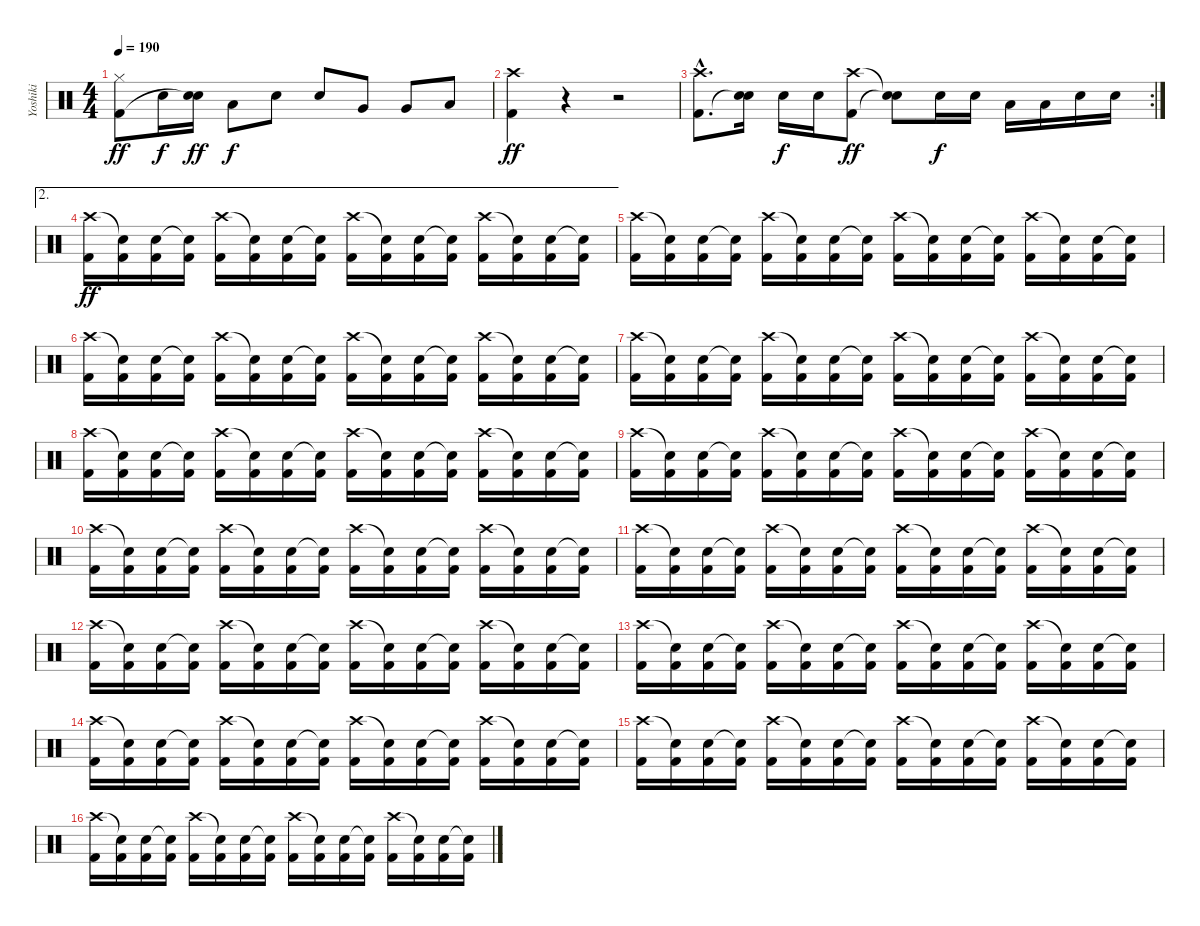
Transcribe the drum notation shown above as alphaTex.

\track ("Yoshiki" "Yoshiki") {instrument percussion}
\staff {score}
\articulation defaults
\ts (4 4)
\tempo 190
\clef neutral
\ks c
("Hi-Hat (closed)" "Kick (hit) 2").8{dy ff} "Snare (hit) 2".16{dy f} ("Snare (hit) 2" "Snare (hit)"{t}).16{dy ff} "Low Tom (hit)".8{dy f} "Snare (hit) 2".8 "Snare (hit) 2".8 "Very Low Tom (hit)".8 "Very Low Tom (hit)".8 "Low Floor Tom (hit)".8 |
("Crash high (hit)" "Kick (hit) 2").4{dy ff} r.4 r.2 |
\rc 2
("Crash high (hit)"{hac} "Kick (hit) 2"{hac}).8{d} ("Snare (hit) 2" "Snare (hit)"{t}).16 "Snare (hit) 2".16{dy f} "Snare (hit) 2".16 ("Crash high (hit)" "Kick (hit) 2").8{dy ff} ("Snare (hit)"{t} "Snare (hit)"{t}).8 "Snare (hit) 2".16{dy f} "Snare (hit) 2".16 "Low Tom (hit)".16 "Low Tom (hit)".16 "Snare (hit) 2".16 "Snare (hit) 2".16 |
\ae 2
("Crash high (hit)" "Kick (hit) 2").16{dy ff} ("Snare (hit)"{t} "Kick (hit) 2").16 ("Snare (hit) 2" "Kick (hit) 2").16 ("Snare (hit)"{t} "Kick (hit) 2").16 ("Crash high (hit)" "Kick (hit) 2").16 ("Snare (hit)"{t} "Kick (hit) 2").16 ("Snare (hit) 2" "Kick (hit) 2").16 ("Snare (hit)"{t} "Kick (hit) 2").16 ("Crash high (hit)" "Kick (hit) 2").16 ("Snare (hit)"{t} "Kick (hit) 2").16 ("Snare (hit) 2" "Kick (hit) 2").16 ("Snare (hit)"{t} "Kick (hit) 2").16 ("Crash high (hit)" "Kick (hit) 2").16 ("Snare (hit)"{t} "Kick (hit) 2").16 ("Snare (hit) 2" "Kick (hit) 2").16 ("Snare (hit)"{t} "Kick (hit) 2").16 |
("Crash high (hit)" "Kick (hit) 2").16 ("Snare (hit)"{t} "Kick (hit) 2").16 ("Snare (hit) 2" "Kick (hit) 2").16 ("Snare (hit)"{t} "Kick (hit) 2").16 ("Crash high (hit)" "Kick (hit) 2").16 ("Snare (hit)"{t} "Kick (hit) 2").16 ("Snare (hit) 2" "Kick (hit) 2").16 ("Snare (hit)"{t} "Kick (hit) 2").16 ("Crash high (hit)" "Kick (hit) 2").16 ("Snare (hit)"{t} "Kick (hit) 2").16 ("Snare (hit) 2" "Kick (hit) 2").16 ("Snare (hit)"{t} "Kick (hit) 2").16 ("Crash high (hit)" "Kick (hit) 2").16 ("Snare (hit)"{t} "Kick (hit) 2").16 ("Snare (hit) 2" "Kick (hit) 2").16 ("Snare (hit)"{t} "Kick (hit) 2").16 |
("Crash high (hit)" "Kick (hit) 2").16 ("Snare (hit)"{t} "Kick (hit) 2").16 ("Snare (hit) 2" "Kick (hit) 2").16 ("Snare (hit)"{t} "Kick (hit) 2").16 ("Crash high (hit)" "Kick (hit) 2").16 ("Snare (hit)"{t} "Kick (hit) 2").16 ("Snare (hit) 2" "Kick (hit) 2").16 ("Snare (hit)"{t} "Kick (hit) 2").16 ("Crash high (hit)" "Kick (hit) 2").16 ("Snare (hit)"{t} "Kick (hit) 2").16 ("Snare (hit) 2" "Kick (hit) 2").16 ("Snare (hit)"{t} "Kick (hit) 2").16 ("Crash high (hit)" "Kick (hit) 2").16 ("Snare (hit)"{t} "Kick (hit) 2").16 ("Snare (hit) 2" "Kick (hit) 2").16 ("Snare (hit)"{t} "Kick (hit) 2").16 |
("Crash high (hit)" "Kick (hit) 2").16 ("Snare (hit)"{t} "Kick (hit) 2").16 ("Snare (hit) 2" "Kick (hit) 2").16 ("Snare (hit)"{t} "Kick (hit) 2").16 ("Crash high (hit)" "Kick (hit) 2").16 ("Snare (hit)"{t} "Kick (hit) 2").16 ("Snare (hit) 2" "Kick (hit) 2").16 ("Snare (hit)"{t} "Kick (hit) 2").16 ("Crash high (hit)" "Kick (hit) 2").16 ("Snare (hit)"{t} "Kick (hit) 2").16 ("Snare (hit) 2" "Kick (hit) 2").16 ("Snare (hit)"{t} "Kick (hit) 2").16 ("Crash high (hit)" "Kick (hit) 2").16 ("Snare (hit)"{t} "Kick (hit) 2").16 ("Snare (hit) 2" "Kick (hit) 2").16 ("Snare (hit)"{t} "Kick (hit) 2").16 |
("Crash high (hit)" "Kick (hit) 2").16 ("Snare (hit)"{t} "Kick (hit) 2").16 ("Snare (hit) 2" "Kick (hit) 2").16 ("Snare (hit)"{t} "Kick (hit) 2").16 ("Crash high (hit)" "Kick (hit) 2").16 ("Snare (hit)"{t} "Kick (hit) 2").16 ("Snare (hit) 2" "Kick (hit) 2").16 ("Snare (hit)"{t} "Kick (hit) 2").16 ("Crash high (hit)" "Kick (hit) 2").16 ("Snare (hit)"{t} "Kick (hit) 2").16 ("Snare (hit) 2" "Kick (hit) 2").16 ("Snare (hit)"{t} "Kick (hit) 2").16 ("Crash high (hit)" "Kick (hit) 2").16 ("Snare (hit)"{t} "Kick (hit) 2").16 ("Snare (hit) 2" "Kick (hit) 2").16 ("Snare (hit)"{t} "Kick (hit) 2").16 |
("Crash high (hit)" "Kick (hit) 2").16 ("Snare (hit)"{t} "Kick (hit) 2").16 ("Snare (hit) 2" "Kick (hit) 2").16 ("Snare (hit)"{t} "Kick (hit) 2").16 ("Crash high (hit)" "Kick (hit) 2").16 ("Snare (hit)"{t} "Kick (hit) 2").16 ("Snare (hit) 2" "Kick (hit) 2").16 ("Snare (hit)"{t} "Kick (hit) 2").16 ("Crash high (hit)" "Kick (hit) 2").16 ("Snare (hit)"{t} "Kick (hit) 2").16 ("Snare (hit) 2" "Kick (hit) 2").16 ("Snare (hit)"{t} "Kick (hit) 2").16 ("Crash high (hit)" "Kick (hit) 2").16 ("Snare (hit)"{t} "Kick (hit) 2").16 ("Snare (hit) 2" "Kick (hit) 2").16 ("Snare (hit)"{t} "Kick (hit) 2").16 |
("Crash high (hit)" "Kick (hit) 2").16 ("Snare (hit)"{t} "Kick (hit) 2").16 ("Snare (hit) 2" "Kick (hit) 2").16 ("Snare (hit)"{t} "Kick (hit) 2").16 ("Crash high (hit)" "Kick (hit) 2").16 ("Snare (hit)"{t} "Kick (hit) 2").16 ("Snare (hit) 2" "Kick (hit) 2").16 ("Snare (hit)"{t} "Kick (hit) 2").16 ("Crash high (hit)" "Kick (hit) 2").16 ("Snare (hit)"{t} "Kick (hit) 2").16 ("Snare (hit) 2" "Kick (hit) 2").16 ("Snare (hit)"{t} "Kick (hit) 2").16 ("Crash high (hit)" "Kick (hit) 2").16 ("Snare (hit)"{t} "Kick (hit) 2").16 ("Snare (hit) 2" "Kick (hit) 2").16 ("Snare (hit)"{t} "Kick (hit) 2").16 |
("Crash high (hit)" "Kick (hit) 2").16 ("Snare (hit)"{t} "Kick (hit) 2").16 ("Snare (hit) 2" "Kick (hit) 2").16 ("Snare (hit)"{t} "Kick (hit) 2").16 ("Crash high (hit)" "Kick (hit) 2").16 ("Snare (hit)"{t} "Kick (hit) 2").16 ("Snare (hit) 2" "Kick (hit) 2").16 ("Snare (hit)"{t} "Kick (hit) 2").16 ("Crash high (hit)" "Kick (hit) 2").16 ("Snare (hit)"{t} "Kick (hit) 2").16 ("Snare (hit) 2" "Kick (hit) 2").16 ("Snare (hit)"{t} "Kick (hit) 2").16 ("Crash high (hit)" "Kick (hit) 2").16 ("Snare (hit)"{t} "Kick (hit) 2").16 ("Snare (hit) 2" "Kick (hit) 2").16 ("Snare (hit)"{t} "Kick (hit) 2").16 |
("Crash high (hit)" "Kick (hit) 2").16 ("Snare (hit)"{t} "Kick (hit) 2").16 ("Snare (hit) 2" "Kick (hit) 2").16 ("Snare (hit)"{t} "Kick (hit) 2").16 ("Crash high (hit)" "Kick (hit) 2").16 ("Snare (hit)"{t} "Kick (hit) 2").16 ("Snare (hit) 2" "Kick (hit) 2").16 ("Snare (hit)"{t} "Kick (hit) 2").16 ("Crash high (hit)" "Kick (hit) 2").16 ("Snare (hit)"{t} "Kick (hit) 2").16 ("Snare (hit) 2" "Kick (hit) 2").16 ("Snare (hit)"{t} "Kick (hit) 2").16 ("Crash high (hit)" "Kick (hit) 2").16 ("Snare (hit)"{t} "Kick (hit) 2").16 ("Snare (hit) 2" "Kick (hit) 2").16 ("Snare (hit)"{t} "Kick (hit) 2").16 |
("Crash high (hit)" "Kick (hit) 2").16 ("Snare (hit)"{t} "Kick (hit) 2").16 ("Snare (hit) 2" "Kick (hit) 2").16 ("Snare (hit)"{t} "Kick (hit) 2").16 ("Crash high (hit)" "Kick (hit) 2").16 ("Snare (hit)"{t} "Kick (hit) 2").16 ("Snare (hit) 2" "Kick (hit) 2").16 ("Snare (hit)"{t} "Kick (hit) 2").16 ("Crash high (hit)" "Kick (hit) 2").16 ("Snare (hit)"{t} "Kick (hit) 2").16 ("Snare (hit) 2" "Kick (hit) 2").16 ("Snare (hit)"{t} "Kick (hit) 2").16 ("Crash high (hit)" "Kick (hit) 2").16 ("Snare (hit)"{t} "Kick (hit) 2").16 ("Snare (hit) 2" "Kick (hit) 2").16 ("Snare (hit)"{t} "Kick (hit) 2").16 |
("Crash high (hit)" "Kick (hit) 2").16 ("Snare (hit)"{t} "Kick (hit) 2").16 ("Snare (hit) 2" "Kick (hit) 2").16 ("Snare (hit)"{t} "Kick (hit) 2").16 ("Crash high (hit)" "Kick (hit) 2").16 ("Snare (hit)"{t} "Kick (hit) 2").16 ("Snare (hit) 2" "Kick (hit) 2").16 ("Snare (hit)"{t} "Kick (hit) 2").16 ("Crash high (hit)" "Kick (hit) 2").16 ("Snare (hit)"{t} "Kick (hit) 2").16 ("Snare (hit) 2" "Kick (hit) 2").16 ("Snare (hit)"{t} "Kick (hit) 2").16 ("Crash high (hit)" "Kick (hit) 2").16 ("Snare (hit)"{t} "Kick (hit) 2").16 ("Snare (hit) 2" "Kick (hit) 2").16 ("Snare (hit)"{t} "Kick (hit) 2").16 |
("Crash high (hit)" "Kick (hit) 2").16 ("Snare (hit)"{t} "Kick (hit) 2").16 ("Snare (hit) 2" "Kick (hit) 2").16 ("Snare (hit)"{t} "Kick (hit) 2").16 ("Crash high (hit)" "Kick (hit) 2").16 ("Snare (hit)"{t} "Kick (hit) 2").16 ("Snare (hit) 2" "Kick (hit) 2").16 ("Snare (hit)"{t} "Kick (hit) 2").16 ("Crash high (hit)" "Kick (hit) 2").16 ("Snare (hit)"{t} "Kick (hit) 2").16 ("Snare (hit) 2" "Kick (hit) 2").16 ("Snare (hit)"{t} "Kick (hit) 2").16 ("Crash high (hit)" "Kick (hit) 2").16 ("Snare (hit)"{t} "Kick (hit) 2").16 ("Snare (hit) 2" "Kick (hit) 2").16 ("Snare (hit)"{t} "Kick (hit) 2").16 |
("Crash high (hit)" "Kick (hit) 2").16 ("Snare (hit)"{t} "Kick (hit) 2").16 ("Snare (hit) 2" "Kick (hit) 2").16 ("Snare (hit)"{t} "Kick (hit) 2").16 ("Crash high (hit)" "Kick (hit) 2").16 ("Snare (hit)"{t} "Kick (hit) 2").16 ("Snare (hit) 2" "Kick (hit) 2").16 ("Snare (hit)"{t} "Kick (hit) 2").16 ("Crash high (hit)" "Kick (hit) 2").16 ("Snare (hit)"{t} "Kick (hit) 2").16 ("Snare (hit) 2" "Kick (hit) 2").16 ("Snare (hit)"{t} "Kick (hit) 2").16 ("Crash high (hit)" "Kick (hit) 2").16 ("Snare (hit)"{t} "Kick (hit) 2").16 ("Snare (hit) 2" "Kick (hit) 2").16 ("Snare (hit)"{t} "Kick (hit) 2").16
